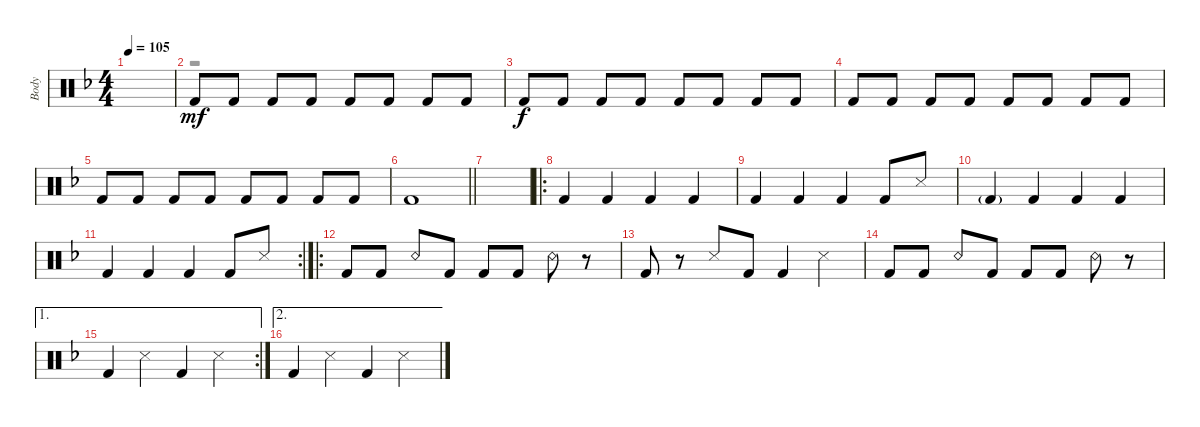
\track ("Body" "Body") {instrument percussion}
\staff {score}
\articulation defaults
\voice
\ts (4 4)
\tempo 105
\clef neutral
\ks dminor
|
"Kick (hit) 2".8{dy mf} "Kick (hit) 2".8 "Kick (hit) 2".8 "Kick (hit) 2".8 "Kick (hit) 2".8 "Kick (hit) 2".8 "Kick (hit) 2".8 "Kick (hit) 2".8 |
"Kick (hit) 2".8{dy f} "Kick (hit) 2".8 "Kick (hit) 2".8 "Kick (hit) 2".8 "Kick (hit) 2".8 "Kick (hit) 2".8 "Kick (hit) 2".8 "Kick (hit) 2".8 |
"Kick (hit) 2".8 "Kick (hit) 2".8 "Kick (hit) 2".8 "Kick (hit) 2".8 "Kick (hit) 2".8 "Kick (hit) 2".8 "Kick (hit) 2".8 "Kick (hit) 2".8 |
"Kick (hit) 2".8 "Kick (hit) 2".8 "Kick (hit) 2".8 "Kick (hit) 2".8 "Kick (hit) 2".8 "Kick (hit) 2".8 "Kick (hit) 2".8 "Kick (hit) 2".8 |
\barLineRight lightlight "Kick (hit) 2".1
|
|
\ro "Kick (hit) 2".4 "Kick (hit) 2".4 "Kick (hit) 2".4 "Kick (hit) 2".4
|
"Kick (hit) 2".4 "Kick (hit) 2".4 "Kick (hit) 2".4 "Kick (hit) 2".8 "Snare (side stick) 3".8 |
"Kick (hit) 2"{g}.4 "Kick (hit) 2".4 "Kick (hit) 2".4 "Kick (hit) 2".4 |
\rc 2 "Kick (hit) 2".4 "Kick (hit) 2".4 "Kick (hit) 2".4 "Kick (hit) 2".8 "Snare (side stick) 3".8
|
\ro "Kick (hit) 2".8 "Kick (hit) 2".8 "Snare (rim shot)".8 "Kick (hit) 2".8 "Kick (hit) 2".8 "Kick (hit) 2".8 "Snare (rim shot)".8
r.8 |
"Kick (hit) 2".8 r.8 "Snare (side stick) 3".8 "Kick (hit) 2".8 "Kick (hit) 2".4 "Snare (side stick) 3".4 |
"Kick (hit) 2".8 "Kick (hit) 2".8 "Snare (rim shot)".8 "Kick (hit) 2".8 "Kick (hit) 2".8 "Kick (hit) 2".8 "Snare (rim shot)".8 r.8 |
\ae 1
\rc 2 "Kick (hit) 2".4 "Snare (side stick) 3".4 "Kick (hit) 2".4 "Snare (side stick) 3".4
|
\ae 2 "Kick (hit) 2".4 "Snare (side stick) 3".4 "Kick (hit) 2".4 "Snare (side stick) 3".4
\voice
\clef neutral
\ottava regular
\simile none
\ks dminor
|
r.1 |
|
|
|
\barLineRight lightlight
|
|
|
|
|
|
|
|
|
|
